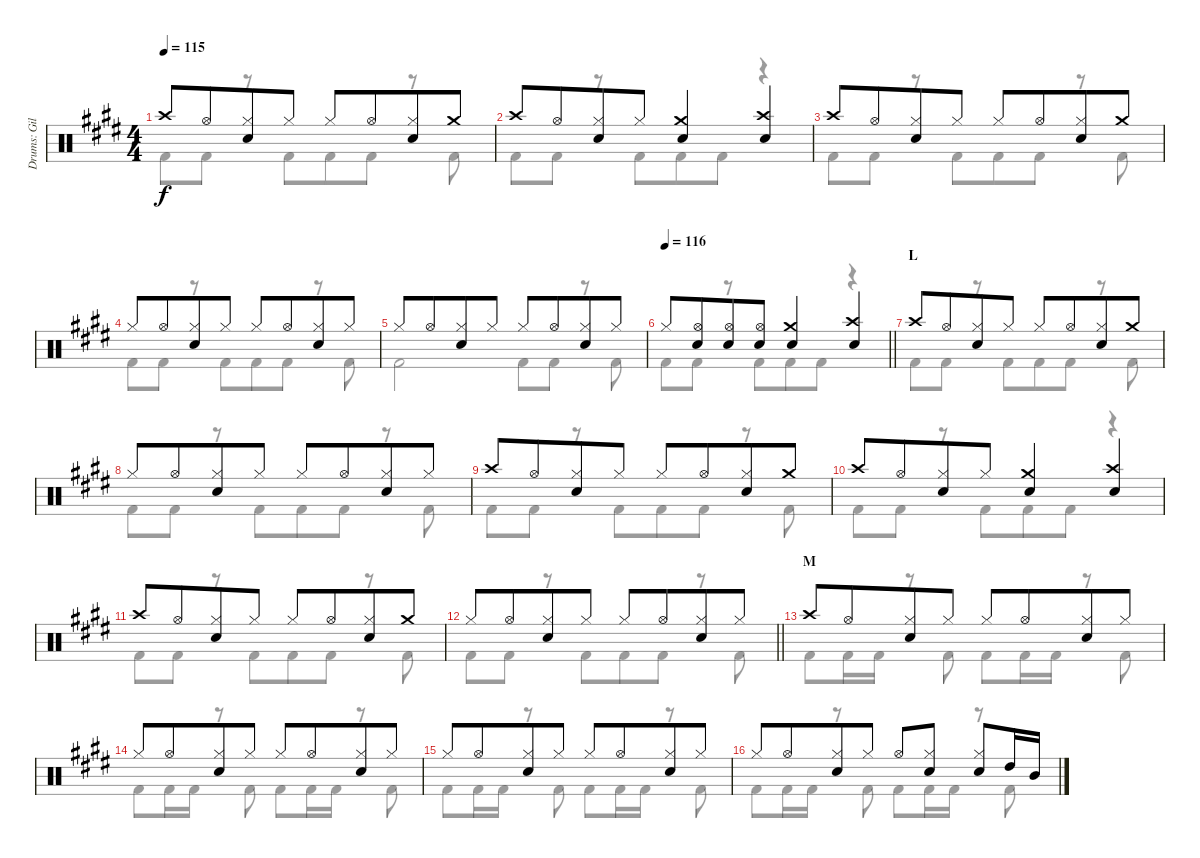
\track ("Drums: Gil" "Drums: Gil") {instrument percussion}
\staff {score}
\articulation defaults
\voice
\ts (4 4)
\tempo 115
\clef neutral
\ks e "Crash high (hit)".8{dy f} "Hi-Hat (open)".8{beam merge}
("Hi-Hat (closed)" "Snare (hit) 2").8 "Hi-Hat (closed)".8 "Hi-Hat (closed)".8 "Hi-Hat (open)".8{beam merge} ("Hi-Hat (closed)" "Snare (hit) 2").8 "Crash medium (hit)".8 |
"Crash high (hit)".8 "Hi-Hat (open)".8{beam merge} ("Hi-Hat (closed)" "Snare (hit) 2").8 "Hi-Hat (closed)".8 ("Crash medium (hit)" "Snare (hit) 2").4 ("Crash high (hit)" "Snare (hit) 2").4 |
"Crash high (hit)".8 "Hi-Hat (open)".8{beam merge} ("Hi-Hat (closed)" "Snare (hit) 2").8 "Hi-Hat (closed)".8 "Hi-Hat (closed)".8 "Hi-Hat (open)".8{beam merge} ("Hi-Hat (closed)" "Snare (hit) 2").8 "Crash medium (hit)".8 |
"Hi-Hat (closed)".8 "Hi-Hat (open)".8{beam merge} ("Hi-Hat (closed)" "Snare (hit) 2").8 "Hi-Hat (closed)".8 "Hi-Hat (closed)".8 "Hi-Hat (open)".8{beam merge} ("Hi-Hat (closed)" "Snare (hit) 2").8 "Hi-Hat (closed)".8 |
"Hi-Hat (closed)".8 "Hi-Hat (open)".8{beam merge} ("Hi-Hat (closed)" "Snare (hit) 2").8 "Hi-Hat (closed)".8 "Hi-Hat (closed)".8 "Hi-Hat (open)".8{beam merge} ("Hi-Hat (closed)" "Snare (hit) 2").8 "Hi-Hat (closed)".8 |
\tempo 116
\barLineRight lightlight "Hi-Hat (closed)".8
("Hi-Hat (open)" "Snare (hit) 2").8{beam merge} ("Hi-Hat (open)" "Snare (hit) 2").8 ("Hi-Hat (open)" "Snare (hit) 2").8 ("Crash medium (hit)" "Snare (hit) 2").4 ("Crash high (hit)" "Snare (hit) 2").4 |
\section ("" "L")
"Crash high (hit)".8 "Hi-Hat (open)".8{beam merge} ("Hi-Hat (closed)" "Snare (hit) 2").8 "Hi-Hat (closed)".8 "Hi-Hat (closed)".8 "Hi-Hat (open)".8{beam merge} ("Hi-Hat (closed)" "Snare (hit) 2").8 "Crash medium (hit)".8 |
"Hi-Hat (closed)".8 "Hi-Hat (open)".8{beam merge} ("Hi-Hat (closed)" "Snare (hit) 2").8 "Hi-Hat (closed)".8 "Hi-Hat (closed)".8 "Hi-Hat (open)".8{beam merge} ("Hi-Hat (closed)" "Snare (hit) 2").8 "Hi-Hat (closed)".8 |
"Crash high (hit)".8 "Hi-Hat (open)".8{beam merge} ("Hi-Hat (closed)" "Snare (hit) 2").8 "Hi-Hat (closed)".8 "Hi-Hat (closed)".8 "Hi-Hat (open)".8{beam merge} ("Hi-Hat (closed)" "Snare (hit) 2").8 "Crash medium (hit)".8 |
"Crash high (hit)".8 "Hi-Hat (open)".8{beam merge} ("Hi-Hat (closed)" "Snare (hit) 2").8 "Hi-Hat (closed)".8 ("Crash medium (hit)" "Snare (hit) 2").4 ("Crash high (hit)" "Snare (hit) 2").4 |
"Crash high (hit)".8 "Hi-Hat (open)".8{beam merge} ("Hi-Hat (closed)" "Snare (hit) 2").8 "Hi-Hat (closed)".8 "Hi-Hat (closed)".8 "Hi-Hat (open)".8{beam merge} ("Hi-Hat (closed)" "Snare (hit) 2").8 "Crash medium (hit)".8 |
\barLineRight lightlight "Hi-Hat (closed)".8 "Hi-Hat (open)".8{beam merge}
("Hi-Hat (closed)" "Snare (hit) 2").8 "Hi-Hat (closed)".8 "Hi-Hat (closed)".8 "Hi-Hat (open)".8{beam merge} ("Hi-Hat (closed)" "Snare (hit) 2").8 "Hi-Hat (closed)".8 |
\section ("" "M")
"Crash high (hit)".8 "Hi-Hat (open)".8{beam merge} ("Hi-Hat (closed)" "Snare (hit) 2").8 "Hi-Hat (closed)".8 "Hi-Hat (closed)".8 "Hi-Hat (open)".8{beam merge} ("Hi-Hat (closed)" "Snare (hit) 2").8 "Hi-Hat (closed)".8 |
"Hi-Hat (closed)".8 "Hi-Hat (open)".8{beam merge} ("Hi-Hat (closed)" "Snare (hit) 2").8 "Hi-Hat (closed)".8 "Hi-Hat (closed)".8 "Hi-Hat (open)".8{beam merge} ("Hi-Hat (closed)" "Snare (hit) 2").8 "Hi-Hat (closed)".8 |
"Hi-Hat (closed)".8 "Hi-Hat (open)".8{beam merge} ("Hi-Hat (closed)" "Snare (hit) 2").8 "Hi-Hat (closed)".8 "Hi-Hat (closed)".8 "Hi-Hat (open)".8{beam merge} ("Hi-Hat (closed)" "Snare (hit) 2").8 "Hi-Hat (closed)".8 |
"Hi-Hat (closed)".8 "Hi-Hat (open)".8{beam merge} ("Hi-Hat (closed)" "Snare (hit) 2").8 "Hi-Hat (closed)".8 "Hi-Hat (open)".8 ("Hi-Hat (closed)" "Snare (hit) 2").8 ("Hi-Hat (closed)" "Snare (hit) 2").8{beam merge} "High Tom (hit)".16 "Mid Tom (hit)".16
\voice
\clef neutral
\ottava regular
\simile none
\ks e "Kick (hit) 2".8{dy f} "Kick (hit) 2".8
r.8 "Kick (hit) 2".8{beam merge} "Kick (hit) 2".8 "Kick (hit) 2".8 r.8 "Kick (hit) 2".8 |
"Kick (hit) 2".8 "Kick (hit) 2".8 r.8 "Kick (hit) 2".8{beam merge} "Kick (hit) 2".8 "Kick (hit) 2".8 r.4 |
"Kick (hit) 2".8 "Kick (hit) 2".8 r.8 "Kick (hit) 2".8{beam merge} "Kick (hit) 2".8 "Kick (hit) 2".8 r.8 "Kick (hit) 2".8 |
"Kick (hit) 2".8 "Kick (hit) 2".8 r.8 "Kick (hit) 2".8{beam merge} "Kick (hit) 2".8 "Kick (hit) 2".8 r.8 "Kick (hit) 2".8 |
"Kick (hit) 2".2{beam merge} "Kick (hit) 2".8 "Kick (hit) 2".8 r.8 "Kick (hit) 2".8 |
\barLineRight lightlight "Kick (hit) 2".8 "Kick (hit) 2".8
r.8 "Kick (hit) 2".8{beam merge} "Kick (hit) 2".8 "Kick (hit) 2".8 r.4 |
"Kick (hit) 2".8 "Kick (hit) 2".8 r.8 "Kick (hit) 2".8{beam merge} "Kick (hit) 2".8 "Kick (hit) 2".8 r.8 "Kick (hit) 2".8 |
"Kick (hit) 2".8 "Kick (hit) 2".8 r.8 "Kick (hit) 2".8{beam merge} "Kick (hit) 2".8 "Kick (hit) 2".8 r.8 "Kick (hit) 2".8 |
"Kick (hit) 2".8 "Kick (hit) 2".8 r.8 "Kick (hit) 2".8{beam merge} "Kick (hit) 2".8 "Kick (hit) 2".8 r.8 "Kick (hit) 2".8 |
"Kick (hit) 2".8 "Kick (hit) 2".8 r.8 "Kick (hit) 2".8{beam merge} "Kick (hit) 2".8 "Kick (hit) 2".8 r.4 |
"Kick (hit) 2".8 "Kick (hit) 2".8 r.8 "Kick (hit) 2".8{beam merge} "Kick (hit) 2".8 "Kick (hit) 2".8 r.8 "Kick (hit) 2".8 |
\barLineRight lightlight "Kick (hit) 2".8 "Kick (hit) 2".8
r.8 "Kick (hit) 2".8{beam merge} "Kick (hit) 2".8 "Kick (hit) 2".8 r.8 "Kick (hit) 2".8 |
"Kick (hit) 2".8 "Kick (hit) 2".16 "Kick (hit) 2".16 r.8 "Kick (hit) 2".8 "Kick (hit) 2".8 "Kick (hit) 2".16 "Kick (hit) 2".16 r.8 "Kick (hit) 2".8 |
"Kick (hit) 2".8 "Kick (hit) 2".16 "Kick (hit) 2".16 r.8 "Kick (hit) 2".8 "Kick (hit) 2".8 "Kick (hit) 2".16 "Kick (hit) 2".16 r.8 "Kick (hit) 2".8 |
"Kick (hit) 2".8 "Kick (hit) 2".16 "Kick (hit) 2".16 r.8 "Kick (hit) 2".8 "Kick (hit) 2".8 "Kick (hit) 2".16 "Kick (hit) 2".16 r.8 "Kick (hit) 2".8 |
"Kick (hit) 2".8 "Kick (hit) 2".16 "Kick (hit) 2".16 r.8 "Kick (hit) 2".8 "Kick (hit) 2".8 "Kick (hit) 2".16 "Kick (hit) 2".16 r.8 "Kick (hit) 2".8
